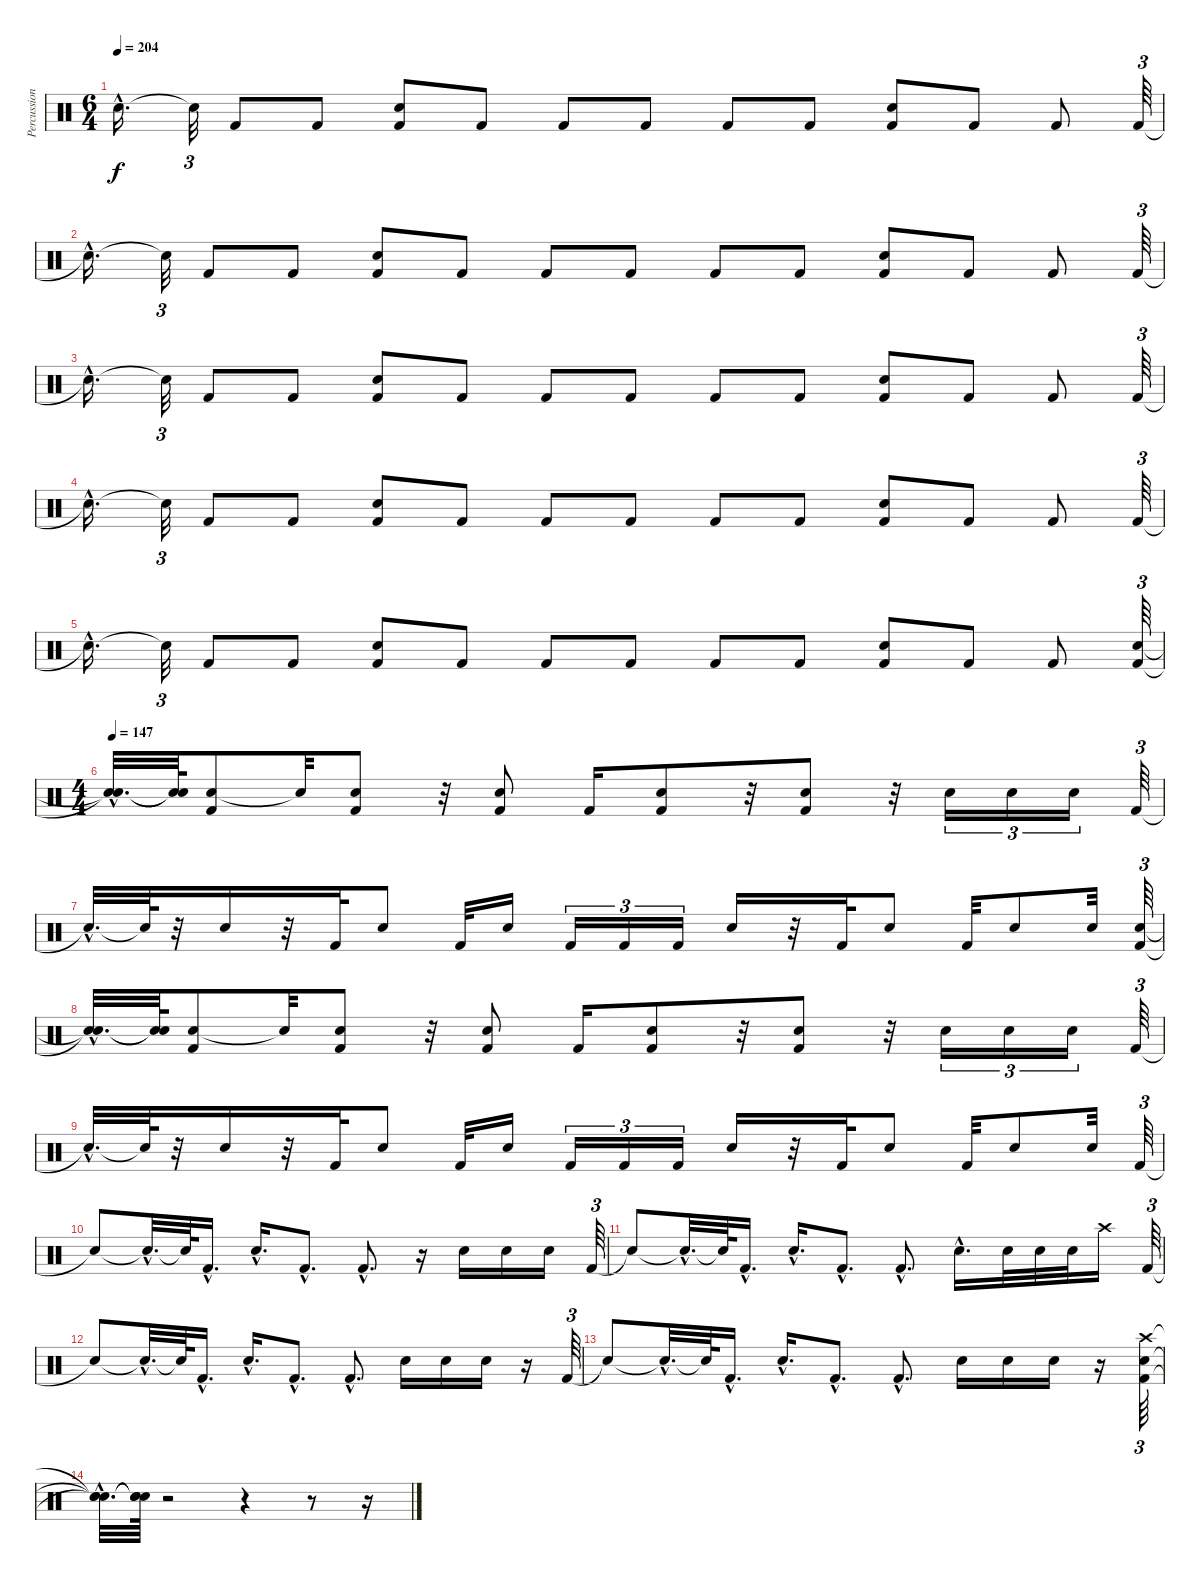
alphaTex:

\track ("Percussions" "Percussion") {instrument percussion}
\staff {score}
\articulation defaults
\ts (6 4)
\tempo 204
\clef neutral
\ks c "Snare (hit)"{hac t}.16{d dy f} "Snare (hit)"{t}.32{tu (3 2)} "Kick (hit) 2".8 "Kick (hit) 2".8
("Electric Snare (hit)" "Kick (hit) 2").8 "Kick (hit) 2".8 "Kick (hit) 2".8 "Kick (hit) 2".8 "Kick (hit) 2".8 "Kick (hit) 2".8 ("Electric Snare (hit)" "Kick (hit) 2").8 "Kick (hit) 2".8 "Kick (hit) 2".8 "Kick (hit) 2".64{tu (3 2)} |
"Snare (hit)"{hac t}.16{d} "Snare (hit)"{t}.32{tu (3 2)} "Kick (hit) 2".8 "Kick (hit) 2".8 ("Electric Snare (hit)" "Kick (hit) 2").8 "Kick (hit) 2".8 "Kick (hit) 2".8 "Kick (hit) 2".8 "Kick (hit) 2".8 "Kick (hit) 2".8 ("Electric Snare (hit)" "Kick (hit) 2").8 "Kick (hit) 2".8 "Kick (hit) 2".8 "Kick (hit) 2".64{tu (3 2)} |
"Snare (hit)"{hac t}.16{d} "Snare (hit)"{t}.32{tu (3 2)} "Kick (hit) 2".8 "Kick (hit) 2".8 ("Electric Snare (hit)" "Kick (hit) 2").8 "Kick (hit) 2".8 "Kick (hit) 2".8 "Kick (hit) 2".8 "Kick (hit) 2".8 "Kick (hit) 2".8 ("Electric Snare (hit)" "Kick (hit) 2").8 "Kick (hit) 2".8 "Kick (hit) 2".8 "Kick (hit) 2".64{tu (3 2)} |
"Snare (hit)"{hac t}.16{d} "Snare (hit)"{t}.32{tu (3 2)} "Kick (hit) 2".8 "Kick (hit) 2".8 ("Electric Snare (hit)" "Kick (hit) 2").8 "Kick (hit) 2".8 "Kick (hit) 2".8 "Kick (hit) 2".8 "Kick (hit) 2".8 "Kick (hit) 2".8 ("Electric Snare (hit)" "Kick (hit) 2").8 "Kick (hit) 2".8 "Kick (hit) 2".8 "Kick (hit) 2".64{tu (3 2)} |
"Snare (hit)"{hac t}.16{d} "Snare (hit)"{t}.32{tu (3 2)} "Kick (hit) 2".8 "Kick (hit) 2".8 ("Electric Snare (hit)" "Kick (hit) 2").8 "Kick (hit) 2".8 "Kick (hit) 2".8 "Kick (hit) 2".8 "Kick (hit) 2".8 "Kick (hit) 2".8 ("Electric Snare (hit)" "Kick (hit) 2").8 "Kick (hit) 2".8 "Kick (hit) 2".8 ("Snare (hit) 2" "Kick (hit) 2").64{tu (3 2)} |
\ts (4 4)
\tempo 147
("Snare (hit)"{hac t} "Snare (hit)"{hac t}).32{d} ("Snare (hit)"{t} "Snare (hit)"{t}).64 ("Electric Snare (hit)" "Kick (hit) 2").8 "Snare (hit)"{t}.32 ("Electric Snare (hit)" "Kick (hit) 2").8 r.32 ("Electric Snare (hit)" "Kick (hit) 2").8 "Kick (hit) 2".16 ("Electric Snare (hit)" "Kick (hit) 2").8 r.32 ("Electric Snare (hit)" "Kick (hit) 2").8 r.32 "Electric Snare (hit)".16{tu (3 2)} "Electric Snare (hit)".16{tu (3 2)} "Electric Snare (hit)".16{tu (3 2)} "Kick (hit) 2".64{tu (3 2)} |
"Snare (hit)"{hac t}.32{d} "Snare (hit)"{t}.64 r.32 "Electric Snare (hit)".16 r.32 "Kick (hit) 2".32 "Electric Snare (hit)".8 "Kick (hit) 2".32 "Electric Snare (hit)".16 "Kick (hit) 2".16{tu (3 2)} "Kick (hit) 2".16{tu (3 2)} "Kick (hit) 2".16{tu (3 2)} "Electric Snare (hit)".16 r.32 "Kick (hit) 2".32 "Electric Snare (hit)".8 "Kick (hit) 2".32 "Electric Snare (hit)".8 "Electric Snare (hit)".32 ("Snare (hit) 2" "Kick (hit) 2").64{tu (3 2)} |
("Snare (hit)"{hac t} "Snare (hit)"{hac t}).32{d} ("Snare (hit)"{t} "Snare (hit)"{t}).64 ("Electric Snare (hit)" "Kick (hit) 2").8 "Snare (hit)"{t}.32 ("Electric Snare (hit)" "Kick (hit) 2").8 r.32 ("Electric Snare (hit)" "Kick (hit) 2").8 "Kick (hit) 2".16 ("Electric Snare (hit)" "Kick (hit) 2").8 r.32 ("Electric Snare (hit)" "Kick (hit) 2").8 r.32 "Electric Snare (hit)".16{tu (3 2)} "Electric Snare (hit)".16{tu (3 2)} "Electric Snare (hit)".16{tu (3 2)} "Kick (hit) 2".64{tu (3 2)} |
"Snare (hit)"{hac t}.32{d} "Snare (hit)"{t}.64 r.32 "Electric Snare (hit)".16 r.32 "Kick (hit) 2".32 "Electric Snare (hit)".8 "Kick (hit) 2".32 "Electric Snare (hit)".16 "Kick (hit) 2".16{tu (3 2)} "Kick (hit) 2".16{tu (3 2)} "Kick (hit) 2".16{tu (3 2)} "Electric Snare (hit)".16 r.32 "Kick (hit) 2".32 "Electric Snare (hit)".8 "Kick (hit) 2".32 "Electric Snare (hit)".8 "Electric Snare (hit)".32 "Kick (hit) 2".64{tu (3 2)} |
"Snare (hit)"{t}.8 "Snare (hit)"{hac t}.32{d} "Snare (hit)"{t}.64 "Kick (hit) 2"{hac}.16{d} "Electric Snare (hit)"{hac}.16{d} "Kick (hit) 2"{hac}.8{d} "Kick (hit) 2"{hac}.8{d} r.16 "Electric Snare (hit)".16 "Electric Snare (hit)".16 "Electric Snare (hit)".16 "Kick (hit) 2".64{tu (3 2)} |
"Snare (hit)"{t}.8 "Snare (hit)"{hac t}.32{d} "Snare (hit)"{t}.64 "Kick (hit) 2"{hac}.16{d} "Electric Snare (hit)"{hac}.16{d} "Kick (hit) 2"{hac}.8{d} "Kick (hit) 2"{hac}.8{d} "Electric Snare (hit)"{hac}.16{d} "Electric Snare (hit)".32 "Electric Snare (hit)".32 "Electric Snare (hit)".32 "Crash high (hit)".16 "Kick (hit) 2".64{tu (3 2)} |
"Snare (hit)"{t}.8 "Snare (hit)"{hac t}.32{d} "Snare (hit)"{t}.64 "Kick (hit) 2"{hac}.16{d} "Electric Snare (hit)"{hac}.16{d} "Kick (hit) 2"{hac}.8{d} "Kick (hit) 2"{hac}.8{d} "Electric Snare (hit)".16 "Electric Snare (hit)".16 "Electric Snare (hit)".16 r.16 "Kick (hit) 2".64{tu (3 2)} |
"Snare (hit)"{t}.8 "Snare (hit)"{hac t}.32{d} "Snare (hit)"{t}.64 "Kick (hit) 2"{hac}.16{d} "Electric Snare (hit)"{hac}.16{d} "Kick (hit) 2"{hac}.8{d} "Kick (hit) 2"{hac}.8{d} "Electric Snare (hit)".16 "Electric Snare (hit)".16 "Electric Snare (hit)".16 r.16 ("Crash high (hit)" "Electric Snare (hit)" "Kick (hit) 2").64{tu (3 2)} |
("Snare (hit)"{hac t} "Snare (hit)"{hac t} "Snare (hit)"{hac t}).32{d} ("Snare (hit)"{t} "Snare (hit)"{t} "Snare (hit)"{t}).64 r.2 r.4 r.8 r.16
